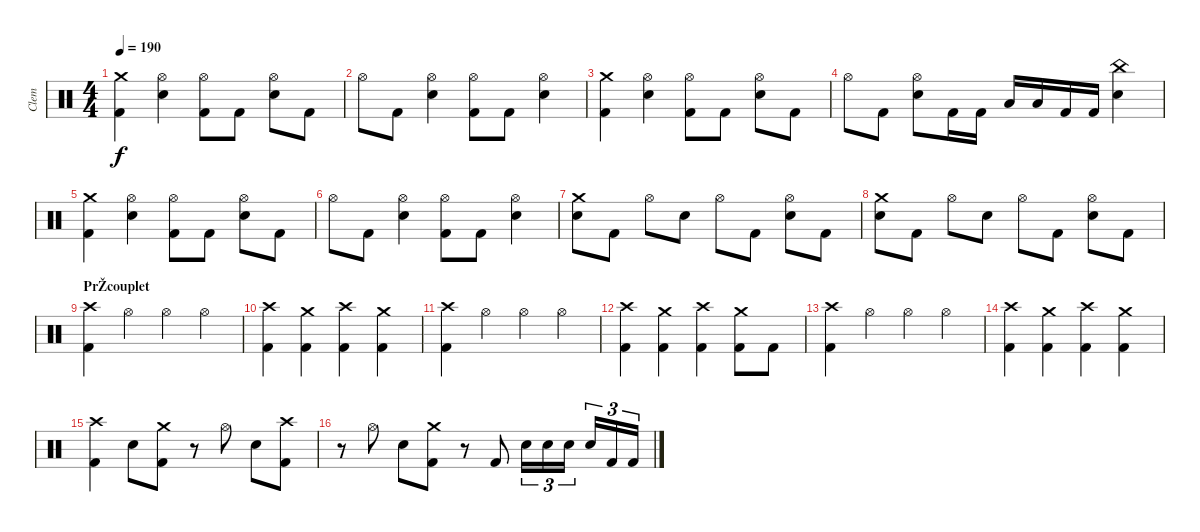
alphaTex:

\track ("Clem" "Clem") {instrument percussion}
\staff {score}
\articulation defaults
\ts (4 4)
\tempo 190
\clef neutral
\ks c
("Crash medium (hit)" "Kick (hit) 2").4{dy f} ("Hi-Hat (open)" "Electric Snare (hit)").4 ("Hi-Hat (open)" "Kick (hit) 2").8 "Kick (hit) 2".8 ("Hi-Hat (open)" "Electric Snare (hit)").8 "Kick (hit) 2".8 |
"Hi-Hat (open)".8 "Kick (hit) 2".8 ("Hi-Hat (open)" "Electric Snare (hit)").4 ("Hi-Hat (open)" "Kick (hit) 2").8 "Kick (hit) 2".8 ("Hi-Hat (open)" "Electric Snare (hit)").4 |
("Crash medium (hit)" "Kick (hit) 2").4 ("Hi-Hat (open)" "Electric Snare (hit)").4 ("Hi-Hat (open)" "Kick (hit) 2").8 "Kick (hit) 2".8 ("Hi-Hat (open)" "Electric Snare (hit)").8 "Kick (hit) 2".8 |
"Hi-Hat (open)".8 "Kick (hit) 2".8 ("Hi-Hat (open)" "Electric Snare (hit)").8 "Kick (hit) 2".16 "Kick (hit) 2".16 "Low Tom (hit)".16 "Low Tom (hit)".16 "Kick (hit) 2".16 "Kick (hit) 2".16 ("China (hit)" "Electric Snare (hit)").4 |
("Crash medium (hit)" "Kick (hit) 2").4 ("Hi-Hat (open)" "Electric Snare (hit)").4 ("Hi-Hat (open)" "Kick (hit) 2").8 "Kick (hit) 2".8 ("Hi-Hat (open)" "Electric Snare (hit)").8 "Kick (hit) 2".8 |
"Hi-Hat (open)".8 "Kick (hit) 2".8 ("Hi-Hat (open)" "Electric Snare (hit)").4 ("Hi-Hat (open)" "Kick (hit) 2").8 "Kick (hit) 2".8 ("Hi-Hat (open)" "Electric Snare (hit)").4 |
("Crash medium (hit)" "Electric Snare (hit)").8 "Kick (hit) 2".8 "Hi-Hat (open)".8 "Electric Snare (hit)".8 "Hi-Hat (open)".8 "Kick (hit) 2".8 ("Hi-Hat (open)" "Electric Snare (hit)").8 "Kick (hit) 2".8 |
("Crash medium (hit)" "Electric Snare (hit)").8 "Kick (hit) 2".8 "Hi-Hat (open)".8 "Electric Snare (hit)".8 "Hi-Hat (open)".8 "Kick (hit) 2".8 ("Hi-Hat (open)" "Electric Snare (hit)").8 "Kick (hit) 2".8 |
\section ("" "PrŽcouplet")
("Crash high (hit)" "Kick (hit) 2").4 "Hi-Hat (open)".4 "Hi-Hat (open)".4 "Hi-Hat (open)".4 |
("Crash high (hit)" "Kick (hit) 2").4 ("Crash medium (hit)" "Kick (hit) 2").4 ("Crash high (hit)" "Kick (hit) 2").4 ("Crash medium (hit)" "Kick (hit) 2").4 |
("Crash high (hit)" "Kick (hit) 2").4 "Hi-Hat (open)".4 "Hi-Hat (open)".4 "Hi-Hat (open)".4 |
("Crash high (hit)" "Kick (hit) 2").4 ("Crash medium (hit)" "Kick (hit) 2").4 ("Crash high (hit)" "Kick (hit) 2").4 ("Crash medium (hit)" "Kick (hit) 2").8 "Kick (hit) 2".8 |
("Crash high (hit)" "Kick (hit) 2").4 "Hi-Hat (open)".4 "Hi-Hat (open)".4 "Hi-Hat (open)".4 |
("Crash high (hit)" "Kick (hit) 2").4 ("Crash medium (hit)" "Kick (hit) 2").4 ("Crash high (hit)" "Kick (hit) 2").4 ("Crash medium (hit)" "Kick (hit) 2").4 |
("Crash high (hit)" "Kick (hit) 2").4 "Electric Snare (hit)".8 ("Crash medium (hit)" "Kick (hit) 2").8 r.8 "Hi-Hat (open)".8 "Electric Snare (hit)".8 ("Crash high (hit)" "Kick (hit) 2").8 |
r.8 "Hi-Hat (open)".8 "Electric Snare (hit)".8 ("Crash medium (hit)" "Kick (hit) 2").8 r.8 "Kick (hit) 2".8 "Electric Snare (hit)".16{tu (3 2)} "Electric Snare (hit)".16{tu (3 2)} "Electric Snare (hit)".16{tu (3 2)} "Electric Snare (hit)".16{tu (3 2)} "Kick (hit) 2".16{tu (3 2)} "Kick (hit) 2".16{tu (3 2)}
